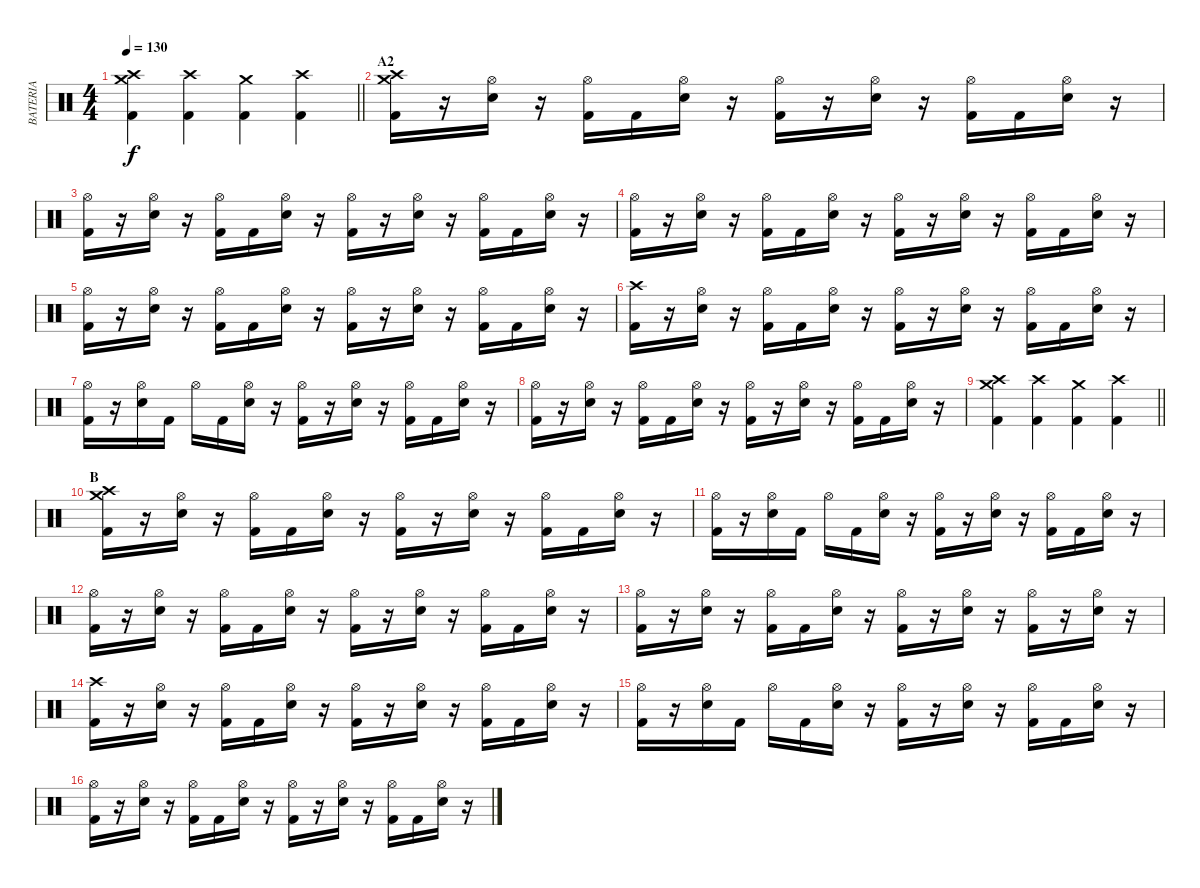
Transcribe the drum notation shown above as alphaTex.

\track ("BATERIA" "BATERIA") {instrument percussion}
\staff {score}
\articulation defaults
\ts (4 4)
\tempo 130
\clef neutral
\barLineRight lightlight
\ks c
("Kick (hit) 2" "Crash high (hit)" "Crash medium (hit)").4{dy f} ("Kick (hit) 2" "Crash high (hit)").4 ("Kick (hit) 2" "Crash medium (hit)").4 ("Kick (hit) 2" "Crash high (hit)").4 |
\section ("" "A2")
("Kick (hit) 2" "Crash medium (hit)" "Crash high (hit)").16 r.16 ("Electric Snare (hit)" "Hi-Hat (open)").16 r.16 ("Kick (hit) 2" "Hi-Hat (open)").16 "Kick (hit) 2".16 ("Electric Snare (hit)" "Hi-Hat (open)").16 r.16 ("Kick (hit) 2" "Hi-Hat (open)").16 r.16 ("Electric Snare (hit)" "Hi-Hat (open)").16 r.16 ("Kick (hit) 2" "Hi-Hat (open)").16 "Kick (hit) 2".16 ("Electric Snare (hit)" "Hi-Hat (open)").16 r.16 |
("Kick (hit) 2" "Hi-Hat (open)").16 r.16 ("Electric Snare (hit)" "Hi-Hat (open)").16 r.16 ("Kick (hit) 2" "Hi-Hat (open)").16 "Kick (hit) 2".16 ("Electric Snare (hit)" "Hi-Hat (open)").16 r.16 ("Kick (hit) 2" "Hi-Hat (open)").16 r.16 ("Electric Snare (hit)" "Hi-Hat (open)").16 r.16 ("Kick (hit) 2" "Hi-Hat (open)").16 "Kick (hit) 2".16 ("Electric Snare (hit)" "Hi-Hat (open)").16 r.16 |
("Kick (hit) 2" "Hi-Hat (open)").16 r.16 ("Electric Snare (hit)" "Hi-Hat (open)").16 r.16 ("Kick (hit) 2" "Hi-Hat (open)").16 "Kick (hit) 2".16 ("Electric Snare (hit)" "Hi-Hat (open)").16 r.16 ("Kick (hit) 2" "Hi-Hat (open)").16 r.16 ("Electric Snare (hit)" "Hi-Hat (open)").16 r.16 ("Kick (hit) 2" "Hi-Hat (open)").16 "Kick (hit) 2".16 ("Electric Snare (hit)" "Hi-Hat (open)").16 r.16 |
("Kick (hit) 2" "Hi-Hat (open)").16 r.16 ("Electric Snare (hit)" "Hi-Hat (open)").16 r.16 ("Kick (hit) 2" "Hi-Hat (open)").16 "Kick (hit) 2".16 ("Electric Snare (hit)" "Hi-Hat (open)").16 r.16 ("Kick (hit) 2" "Hi-Hat (open)").16 r.16 ("Electric Snare (hit)" "Hi-Hat (open)").16 r.16 ("Kick (hit) 2" "Hi-Hat (open)").16 "Kick (hit) 2".16 ("Electric Snare (hit)" "Hi-Hat (open)").16 r.16 |
("Kick (hit) 2" "Crash high (hit)").16 r.16 ("Electric Snare (hit)" "Hi-Hat (open)").16 r.16 ("Kick (hit) 2" "Hi-Hat (open)").16 "Kick (hit) 2".16 ("Electric Snare (hit)" "Hi-Hat (open)").16 r.16 ("Kick (hit) 2" "Hi-Hat (open)").16 r.16 ("Electric Snare (hit)" "Hi-Hat (open)").16 r.16 ("Kick (hit) 2" "Hi-Hat (open)").16 "Kick (hit) 2".16 ("Electric Snare (hit)" "Hi-Hat (open)").16 r.16 |
("Kick (hit) 2" "Hi-Hat (open)").16 r.16 ("Electric Snare (hit)" "Hi-Hat (open)").16 "Kick (hit) 2".16 "Hi-Hat (open)".16 "Kick (hit) 2".16 ("Electric Snare (hit)" "Hi-Hat (open)").16 r.16 ("Kick (hit) 2" "Hi-Hat (open)").16 r.16 ("Electric Snare (hit)" "Hi-Hat (open)").16 r.16 ("Kick (hit) 2" "Hi-Hat (open)").16 "Kick (hit) 2".16 ("Electric Snare (hit)" "Hi-Hat (open)").16 r.16 |
("Kick (hit) 2" "Hi-Hat (open)").16 r.16 ("Electric Snare (hit)" "Hi-Hat (open)").16 r.16 ("Kick (hit) 2" "Hi-Hat (open)").16 "Kick (hit) 2".16 ("Electric Snare (hit)" "Hi-Hat (open)").16 r.16 ("Kick (hit) 2" "Hi-Hat (open)").16 r.16 ("Electric Snare (hit)" "Hi-Hat (open)").16 r.16 ("Kick (hit) 2" "Hi-Hat (open)").16 "Kick (hit) 2".16 ("Electric Snare (hit)" "Hi-Hat (open)").16 r.16 |
\barLineRight lightlight
("Kick (hit) 2" "Crash high (hit)" "Crash medium (hit)").4 ("Kick (hit) 2" "Crash high (hit)").4 ("Kick (hit) 2" "Crash medium (hit)").4 ("Kick (hit) 2" "Crash high (hit)").4 |
\section ("" "B")
("Kick (hit) 2" "Crash medium (hit)" "Crash high (hit)").16 r.16 ("Electric Snare (hit)" "Hi-Hat (open)").16 r.16 ("Kick (hit) 2" "Hi-Hat (open)").16 "Kick (hit) 2".16 ("Electric Snare (hit)" "Hi-Hat (open)").16 r.16 ("Kick (hit) 2" "Hi-Hat (open)").16 r.16 ("Electric Snare (hit)" "Hi-Hat (open)").16 r.16 ("Kick (hit) 2" "Hi-Hat (open)").16 "Kick (hit) 2".16 ("Electric Snare (hit)" "Hi-Hat (open)").16 r.16 |
("Kick (hit) 2" "Hi-Hat (open)").16 r.16 ("Electric Snare (hit)" "Hi-Hat (open)").16 "Kick (hit) 2".16 "Hi-Hat (open)".16 "Kick (hit) 2".16 ("Electric Snare (hit)" "Hi-Hat (open)").16 r.16 ("Kick (hit) 2" "Hi-Hat (open)").16 r.16 ("Electric Snare (hit)" "Hi-Hat (open)").16 r.16 ("Kick (hit) 2" "Hi-Hat (open)").16 "Kick (hit) 2".16 ("Electric Snare (hit)" "Hi-Hat (open)").16 r.16 |
("Kick (hit) 2" "Hi-Hat (open)").16 r.16 ("Electric Snare (hit)" "Hi-Hat (open)").16 r.16 ("Kick (hit) 2" "Hi-Hat (open)").16 "Kick (hit) 2".16 ("Electric Snare (hit)" "Hi-Hat (open)").16 r.16 ("Kick (hit) 2" "Hi-Hat (open)").16 r.16 ("Electric Snare (hit)" "Hi-Hat (open)").16 r.16 ("Kick (hit) 2" "Hi-Hat (open)").16 "Kick (hit) 2".16 ("Electric Snare (hit)" "Hi-Hat (open)").16 r.16 |
("Kick (hit) 2" "Hi-Hat (open)").16 r.16 ("Electric Snare (hit)" "Hi-Hat (open)").16 r.16 ("Kick (hit) 2" "Hi-Hat (open)").16 "Kick (hit) 2".16 ("Electric Snare (hit)" "Hi-Hat (open)").16 r.16 ("Kick (hit) 2" "Hi-Hat (open)").16 r.16 ("Electric Snare (hit)" "Hi-Hat (open)").16 r.16 ("Kick (hit) 2" "Hi-Hat (open)").16 r.16 ("Electric Snare (hit)" "Hi-Hat (open)").16 r.16 |
("Kick (hit) 2" "Crash high (hit)").16 r.16 ("Electric Snare (hit)" "Hi-Hat (open)").16 r.16 ("Kick (hit) 2" "Hi-Hat (open)").16 "Kick (hit) 2".16 ("Electric Snare (hit)" "Hi-Hat (open)").16 r.16 ("Kick (hit) 2" "Hi-Hat (open)").16 r.16 ("Electric Snare (hit)" "Hi-Hat (open)").16 r.16 ("Kick (hit) 2" "Hi-Hat (open)").16 "Kick (hit) 2".16 ("Electric Snare (hit)" "Hi-Hat (open)").16 r.16 |
("Kick (hit) 2" "Hi-Hat (open)").16 r.16 ("Electric Snare (hit)" "Hi-Hat (open)").16 "Kick (hit) 2".16 "Hi-Hat (open)".16 "Kick (hit) 2".16 ("Electric Snare (hit)" "Hi-Hat (open)").16 r.16 ("Kick (hit) 2" "Hi-Hat (open)").16 r.16 ("Electric Snare (hit)" "Hi-Hat (open)").16 r.16 ("Kick (hit) 2" "Hi-Hat (open)").16 "Kick (hit) 2".16 ("Electric Snare (hit)" "Hi-Hat (open)").16 r.16 |
("Kick (hit) 2" "Hi-Hat (open)").16 r.16 ("Electric Snare (hit)" "Hi-Hat (open)").16 r.16 ("Kick (hit) 2" "Hi-Hat (open)").16 "Kick (hit) 2".16 ("Electric Snare (hit)" "Hi-Hat (open)").16 r.16 ("Kick (hit) 2" "Hi-Hat (open)").16 r.16 ("Electric Snare (hit)" "Hi-Hat (open)").16 r.16 ("Kick (hit) 2" "Hi-Hat (open)").16 "Kick (hit) 2".16 ("Electric Snare (hit)" "Hi-Hat (open)").16 r.16
